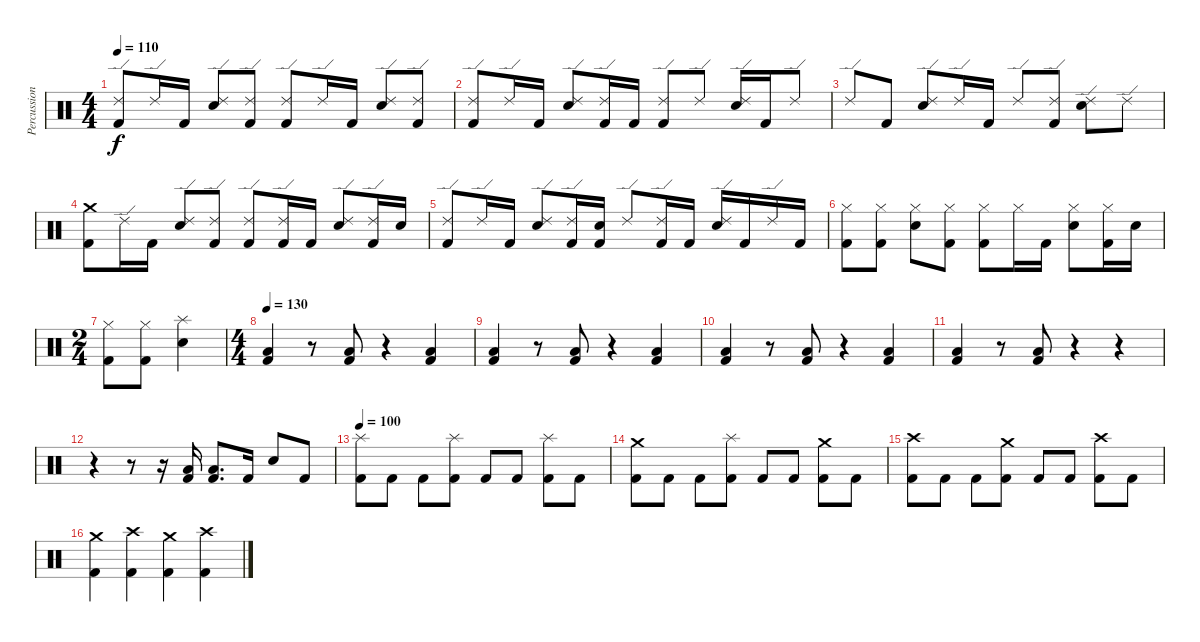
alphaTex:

\track ("Percussions" "Percussion") {instrument percussion}
\staff {score}
\articulation defaults
\ts (4 4)
\tempo 110
\clef neutral
\ks c
("Ride (edge) 2" "Kick (hit) 2").8{dy f} "Ride (edge) 2".16 "Kick (hit) 2".16 ("Ride (edge) 2" "Electric Snare (hit)").8 ("Ride (edge) 2" "Kick (hit) 2").8 ("Ride (edge) 2" "Kick (hit) 2").8 "Ride (edge) 2".16 "Kick (hit) 2".16 ("Ride (edge) 2" "Electric Snare (hit)").8 ("Ride (edge) 2" "Kick (hit) 2").8 |
("Ride (edge) 2" "Kick (hit) 2").8 "Ride (edge) 2".16 "Kick (hit) 2".16 ("Ride (edge) 2" "Electric Snare (hit)").8 ("Ride (edge) 2" "Kick (hit) 2").16 "Kick (hit) 2".16 ("Ride (edge) 2" "Kick (hit) 2").8 "Ride (edge) 2".8 ("Ride (edge) 2" "Electric Snare (hit)").16 "Kick (hit) 2".16 "Ride (edge) 2".8 |
"Ride (edge) 2".8 "Kick (hit) 2".8 ("Ride (edge) 2" "Electric Snare (hit)").8 "Ride (edge) 2".16 "Kick (hit) 2".16 "Ride (edge) 2".8 ("Ride (edge) 2" "Kick (hit) 2").8 ("Ride (edge) 2" "Electric Snare (hit)").8 "Ride (edge) 2".8 |
("Crash medium (hit)" "Kick (hit) 2").8 "Ride (edge) 2".16 "Kick (hit) 2".16 ("Ride (edge) 2" "Electric Snare (hit)").8 ("Ride (edge) 2" "Kick (hit) 2").8 ("Ride (edge) 2" "Kick (hit) 2").8 ("Ride (edge) 2" "Kick (hit) 2").16 "Kick (hit) 2".16 ("Ride (edge) 2" "Electric Snare (hit)").8 ("Ride (edge) 2" "Kick (hit) 2").16 "Electric Snare (hit)".16 |
("Ride (edge) 2" "Kick (hit) 2").8 "Ride (edge) 2".16 "Kick (hit) 2".16 ("Ride (edge) 2" "Electric Snare (hit)").8 ("Ride (edge) 2" "Kick (hit) 2").16 ("Electric Snare (hit)" "Kick (hit) 2").16 "Ride (edge) 2".8 ("Ride (edge) 2" "Kick (hit) 2").16 "Kick (hit) 2".16 ("Ride (edge) 2" "Electric Snare (hit)").16 "Kick (hit) 2".16 "Ride (edge) 2".16 "Kick (hit) 2".16 |
("Hi-Hat (closed)" "Kick (hit) 2").8 ("Hi-Hat (closed)" "Kick (hit) 2").8 ("Hi-Hat (closed)" "Electric Snare (hit)").8 ("Hi-Hat (closed)" "Kick (hit) 2").8 ("Hi-Hat (closed)" "Kick (hit) 2").8 "Hi-Hat (closed)".16 "Kick (hit) 2".16 ("Hi-Hat (closed)" "Electric Snare (hit)").8 ("Hi-Hat (closed)" "Kick (hit) 2").16 "Electric Snare (hit)".16 |
\ts (2 4)
("Hi-Hat (closed)" "Kick (hit) 2").8 ("Hi-Hat (closed)" "Kick (hit) 2").8 ("Splash (hit)" "Electric Snare (hit)").4 |
\ts (4 4)
\tempo 130
("Low Tom (hit)" "Kick (hit) 2").4 r.8 ("Low Tom (hit)" "Kick (hit) 2").8 r.4 ("Low Tom (hit)" "Kick (hit) 2").4 |
("Low Tom (hit)" "Kick (hit) 2").4 r.8 ("Low Tom (hit)" "Kick (hit) 2").8 r.4 ("Low Tom (hit)" "Kick (hit) 2").4 |
("Low Tom (hit)" "Kick (hit) 2").4 r.8 ("Low Tom (hit)" "Kick (hit) 2").8 r.4 ("Low Tom (hit)" "Kick (hit) 2").4 |
("Low Tom (hit)" "Kick (hit) 2").4 r.8 ("Low Tom (hit)" "Kick (hit) 2").8 r.4 r.4 |
r.4 r.8 r.16 ("Low Tom (hit)" "Kick (hit) 2").16 ("Low Tom (hit)" "Kick (hit) 2").8{d} "Kick (hit) 2".16 "Electric Snare (hit)".8 "Kick (hit) 2".8 |
\tempo 100
("Splash (hit)" "Kick (hit) 2").8 "Kick (hit) 2".8 "Kick (hit) 2".8 ("Splash (hit)" "Kick (hit) 2").8 "Kick (hit) 2".8 "Kick (hit) 2".8 ("Splash (hit)" "Kick (hit) 2").8 "Kick (hit) 2".8 |
("Crash medium (hit)" "Kick (hit) 2").8 "Kick (hit) 2".8 "Kick (hit) 2".8 ("Splash (hit)" "Kick (hit) 2").8 "Kick (hit) 2".8 "Kick (hit) 2".8 ("Crash medium (hit)" "Kick (hit) 2").8 "Kick (hit) 2".8 |
("Crash high (hit)" "Kick (hit) 2").8 "Kick (hit) 2".8 "Kick (hit) 2".8 ("Crash medium (hit)" "Kick (hit) 2").8 "Kick (hit) 2".8 "Kick (hit) 2".8 ("Crash high (hit)" "Kick (hit) 2").8 "Kick (hit) 2".8 |
("Crash medium (hit)" "Kick (hit) 2").4 ("Crash high (hit)" "Kick (hit) 2").4 ("Crash medium (hit)" "Kick (hit) 2").4 ("Crash high (hit)" "Kick (hit) 2").4
